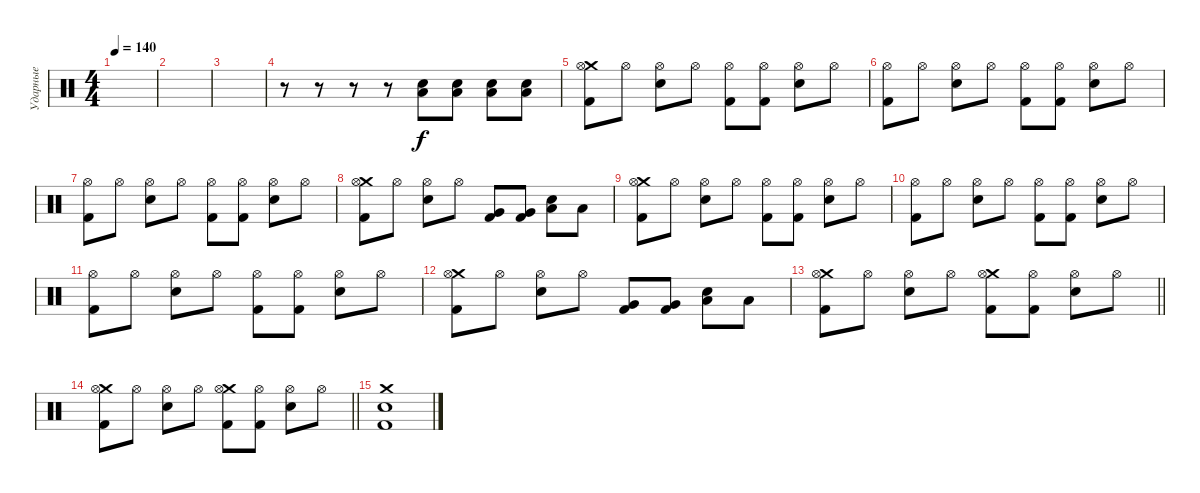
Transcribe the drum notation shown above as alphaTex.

\track ("Ударные" "Ударные") {instrument percussion}
\staff {score}
\articulation defaults
\ts (4 4)
\tempo 140
\clef neutral
\ks c
|
|
|
r.8 r.8 r.8 r.8 ("Low Floor Tom (hit)" "Electric Snare (hit)").8 ("Low Floor Tom (hit)" "Electric Snare (hit)").8 ("Low Floor Tom (hit)" "Electric Snare (hit)").8 ("Low Floor Tom (hit)" "Electric Snare (hit)").8 |
("Crash medium (hit)" "Hi-Hat (open)" "Kick (hit) 2").8 "Hi-Hat (open)".8 ("Hi-Hat (open)" "Electric Snare (hit)").8 "Hi-Hat (open)".8 ("Hi-Hat (open)" "Kick (hit) 2").8 ("Hi-Hat (open)" "Kick (hit) 2").8 ("Hi-Hat (open)" "Electric Snare (hit)").8 "Hi-Hat (open)".8 |
("Hi-Hat (open)" "Kick (hit) 2").8 "Hi-Hat (open)".8 ("Hi-Hat (open)" "Electric Snare (hit)").8 "Hi-Hat (open)".8 ("Hi-Hat (open)" "Kick (hit) 2").8 ("Hi-Hat (open)" "Kick (hit) 2").8 ("Hi-Hat (open)" "Electric Snare (hit)").8 "Hi-Hat (open)".8 |
("Hi-Hat (open)" "Kick (hit) 2").8 "Hi-Hat (open)".8 ("Hi-Hat (open)" "Electric Snare (hit)").8 "Hi-Hat (open)".8 ("Hi-Hat (open)" "Kick (hit) 2").8 ("Hi-Hat (open)" "Kick (hit) 2").8 ("Hi-Hat (open)" "Electric Snare (hit)").8 "Hi-Hat (open)".8 |
("Crash medium (hit)" "Hi-Hat (open)" "Kick (hit) 2").8 "Hi-Hat (open)".8 ("Hi-Hat (open)" "Electric Snare (hit)").8 "Hi-Hat (open)".8 ("Very Low Tom (hit)" "Kick (hit) 2").8 ("Very Low Tom (hit)" "Kick (hit) 2").8 ("Low Floor Tom (hit)" "Electric Snare (hit)").8 "Low Floor Tom (hit)".8 |
("Crash medium (hit)" "Hi-Hat (open)" "Kick (hit) 2").8 "Hi-Hat (open)".8 ("Hi-Hat (open)" "Electric Snare (hit)").8 "Hi-Hat (open)".8 ("Hi-Hat (open)" "Kick (hit) 2").8 ("Hi-Hat (open)" "Kick (hit) 2").8 ("Hi-Hat (open)" "Electric Snare (hit)").8 "Hi-Hat (open)".8 |
("Hi-Hat (open)" "Kick (hit) 2").8 "Hi-Hat (open)".8 ("Hi-Hat (open)" "Electric Snare (hit)").8 "Hi-Hat (open)".8 ("Hi-Hat (open)" "Kick (hit) 2").8 ("Hi-Hat (open)" "Kick (hit) 2").8 ("Hi-Hat (open)" "Electric Snare (hit)").8 "Hi-Hat (open)".8 |
("Hi-Hat (open)" "Kick (hit) 2").8 "Hi-Hat (open)".8 ("Hi-Hat (open)" "Electric Snare (hit)").8 "Hi-Hat (open)".8 ("Hi-Hat (open)" "Kick (hit) 2").8 ("Hi-Hat (open)" "Kick (hit) 2").8 ("Hi-Hat (open)" "Electric Snare (hit)").8 "Hi-Hat (open)".8 |
("Crash medium (hit)" "Hi-Hat (open)" "Kick (hit) 2").8 "Hi-Hat (open)".8 ("Hi-Hat (open)" "Electric Snare (hit)").8 "Hi-Hat (open)".8 ("Very Low Tom (hit)" "Kick (hit) 2").8 ("Very Low Tom (hit)" "Kick (hit) 2").8 ("Low Floor Tom (hit)" "Electric Snare (hit)").8 "Low Floor Tom (hit)".8 |
\barLineRight lightlight
("Crash medium (hit)" "Hi-Hat (open)" "Kick (hit) 2").8 "Hi-Hat (open)".8 ("Hi-Hat (open)" "Electric Snare (hit)").8 "Hi-Hat (open)".8 ("Crash medium (hit)" "Hi-Hat (open)" "Kick (hit) 2").8 ("Hi-Hat (open)" "Kick (hit) 2").8 ("Hi-Hat (open)" "Electric Snare (hit)").8 "Hi-Hat (open)".8 |
\barLineRight lightlight
("Crash medium (hit)" "Hi-Hat (open)" "Kick (hit) 2").8 "Hi-Hat (open)".8 ("Hi-Hat (open)" "Electric Snare (hit)").8 "Hi-Hat (open)".8 ("Crash medium (hit)" "Hi-Hat (open)" "Kick (hit) 2").8 ("Hi-Hat (open)" "Kick (hit) 2").8 ("Hi-Hat (open)" "Electric Snare (hit)").8 "Hi-Hat (open)".8 |
("Electric Snare (hit)" "Kick (hit) 2" "Crash medium (hit)").1
